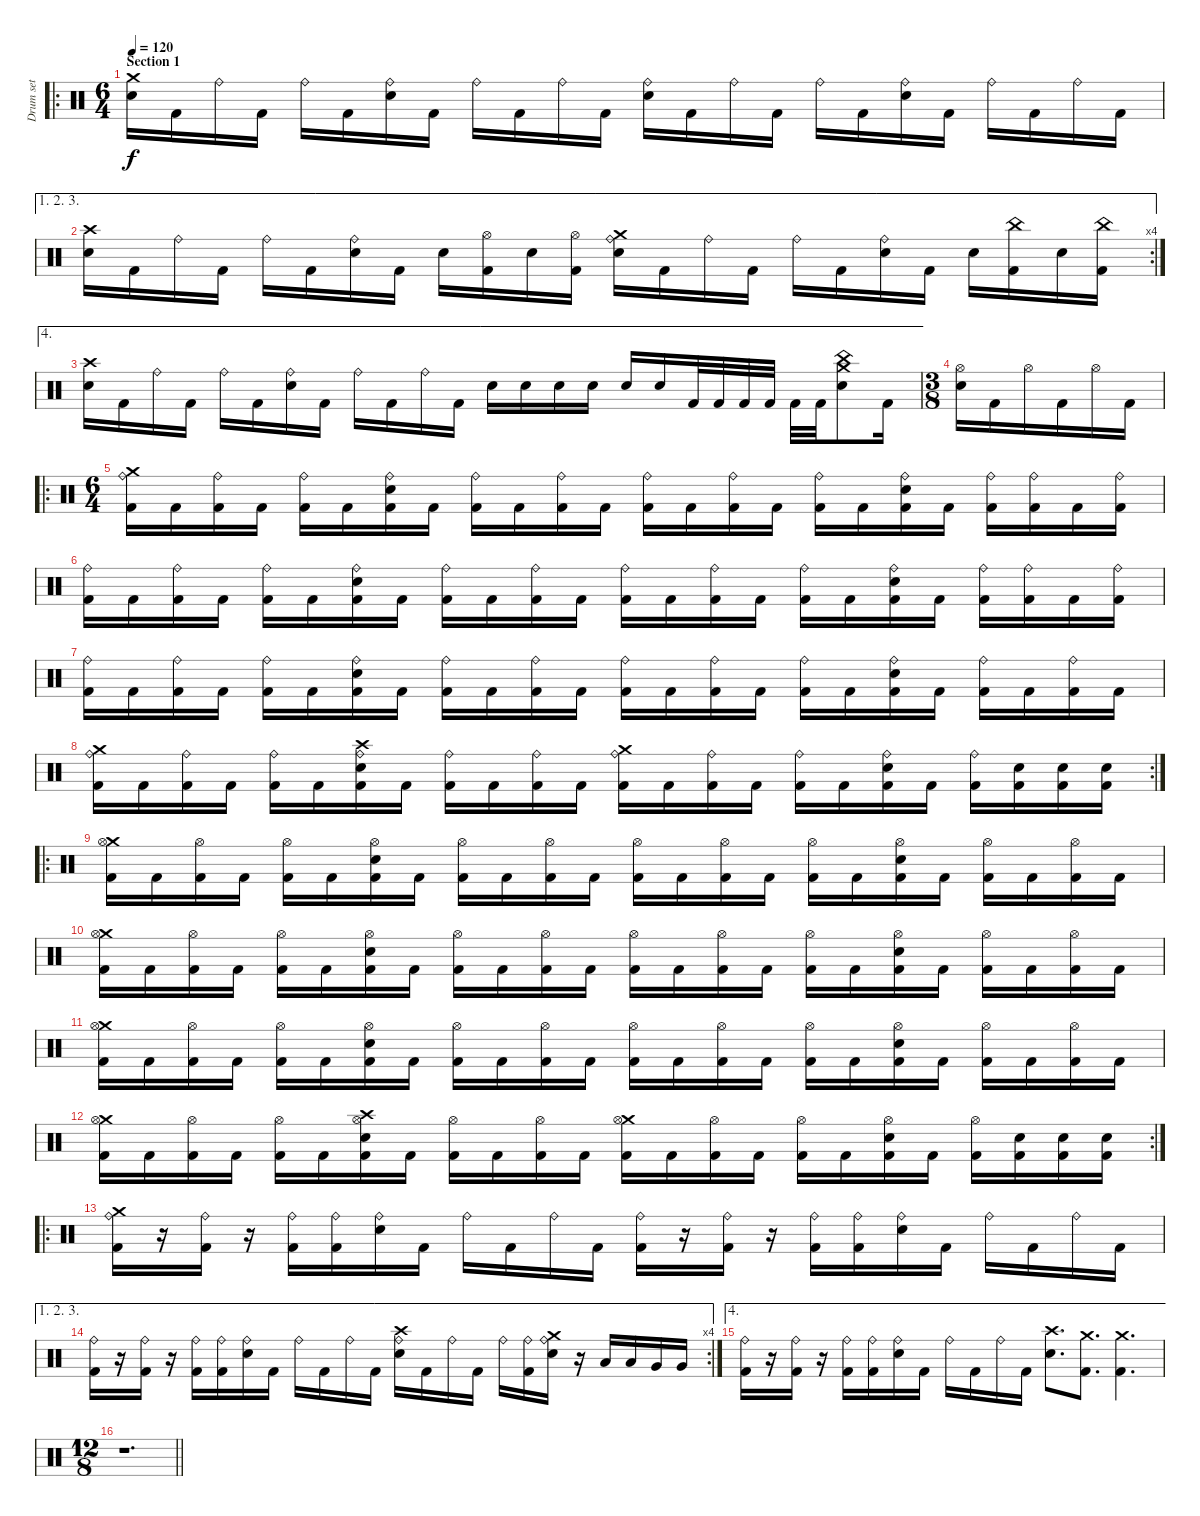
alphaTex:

\track ("Drum set" "Drum set") {instrument percussion}
\staff {score}
\articulation defaults
\ro
\ts (6 4)
\section ("" "Section 1")
\tempo 120
\clef neutral
\ks c
("Crash medium (hit)" "Snare (hit) 2").16{dy f} "Kick (hit) 2".16 "Ride (bell)".16 "Kick (hit) 2".16 "Ride (bell)".16 "Kick (hit) 2".16 ("Ride (bell)" "Snare (hit) 2").16 "Kick (hit) 2".16 "Ride (bell)".16 "Kick (hit) 2".16 "Ride (bell)".16 "Kick (hit) 2".16 ("Ride (bell)" "Snare (hit) 2").16 "Kick (hit) 2".16 "Ride (bell)".16 "Kick (hit) 2".16 "Ride (bell)".16 "Kick (hit) 2".16 ("Ride (bell)" "Snare (hit) 2").16 "Kick (hit) 2".16 "Ride (bell)".16 "Kick (hit) 2".16 "Ride (bell)".16 "Kick (hit) 2".16 |
\ae (1 2 3)
\rc 4
("Crash high (hit)" "Snare (hit) 2").16 "Kick (hit) 2".16 "Ride (bell)".16 "Kick (hit) 2".16 "Ride (bell)".16 "Kick (hit) 2".16 ("Ride (bell)" "Snare (hit) 2").16 "Kick (hit) 2".16 "Snare (hit) 2".16 ("Hi-Hat (open)" "Kick (hit) 2").16 "Snare (hit) 2".16 ("Hi-Hat (open)" "Kick (hit) 2").16 ("Crash medium (hit)" "Ride (bell)" "Snare (hit) 2").16 "Kick (hit) 2".16 "Ride (bell)".16 "Kick (hit) 2".16 "Ride (bell)".16 "Kick (hit) 2".16 ("Ride (bell)" "Snare (hit) 2").16 "Kick (hit) 2".16 "Snare (hit) 2".16 ("China (hit)" "Kick (hit) 2").16 "Snare (hit) 2".16 ("China (hit)" "Kick (hit) 2").16 |
\ae 4
("Crash high (hit)" "Snare (hit) 2").16 "Kick (hit) 2".16 "Ride (bell)".16 "Kick (hit) 2".16 "Ride (bell)".16 "Kick (hit) 2".16 ("Ride (bell)" "Snare (hit) 2").16 "Kick (hit) 2".16 "Ride (bell)".16 "Kick (hit) 2".16 "Ride (bell)".16 "Kick (hit) 2".16 "Snare (hit) 2".16 "Snare (hit) 2".16 "Snare (hit) 2".16 "Snare (hit) 2".16 "Snare (hit) 2".16 "Snare (hit) 2".16 "Kick (hit) 2".32 "Kick (hit) 2".32 "Kick (hit) 2".32 "Kick (hit) 2".32 "Kick (hit) 2".32 "Kick (hit) 2".32 ("China (hit)" "Crash medium (hit)" "Snare (hit) 2").8 "Kick (hit) 2".16 |
\ts (3 8)
("Hi-Hat (open)" "Snare (hit) 2").16 "Kick (hit) 2".16 "Hi-Hat (open)".16 "Kick (hit) 2".16 "Hi-Hat (open)".16 "Kick (hit) 2".16 |
\ro
\ts (6 4)
("Crash medium (hit)" "Ride (bell)" "Kick (hit) 2").16 "Kick (hit) 2".16 ("Ride (bell)" "Kick (hit) 2").16 "Kick (hit) 2".16 ("Ride (bell)" "Kick (hit) 2").16 "Kick (hit) 2".16 ("Ride (bell)" "Snare (hit) 2" "Kick (hit) 2").16 "Kick (hit) 2".16 ("Ride (bell)" "Kick (hit) 2").16 "Kick (hit) 2".16 ("Ride (bell)" "Kick (hit) 2").16 "Kick (hit) 2".16 ("Ride (bell)" "Kick (hit) 2").16 "Kick (hit) 2".16 ("Ride (bell)" "Kick (hit) 2").16 "Kick (hit) 2".16 ("Ride (bell)" "Kick (hit) 2").16 "Kick (hit) 2".16 ("Ride (bell)" "Snare (hit) 2" "Kick (hit) 2").16 "Kick (hit) 2".16 ("Ride (bell)" "Kick (hit) 2").16 ("Ride (bell)" "Kick (hit) 2").16 "Kick (hit) 2".16 ("Ride (bell)" "Kick (hit) 2").16 |
("Ride (bell)" "Kick (hit) 2").16 "Kick (hit) 2".16 ("Ride (bell)" "Kick (hit) 2").16 "Kick (hit) 2".16 ("Ride (bell)" "Kick (hit) 2").16 "Kick (hit) 2".16 ("Ride (bell)" "Snare (hit) 2" "Kick (hit) 2").16 "Kick (hit) 2".16 ("Ride (bell)" "Kick (hit) 2").16 "Kick (hit) 2".16 ("Ride (bell)" "Kick (hit) 2").16 "Kick (hit) 2".16 ("Ride (bell)" "Kick (hit) 2").16 "Kick (hit) 2".16 ("Ride (bell)" "Kick (hit) 2").16 "Kick (hit) 2".16 ("Ride (bell)" "Kick (hit) 2").16 "Kick (hit) 2".16 ("Ride (bell)" "Snare (hit) 2" "Kick (hit) 2").16 "Kick (hit) 2".16 ("Ride (bell)" "Kick (hit) 2").16 ("Ride (bell)" "Kick (hit) 2").16 "Kick (hit) 2".16 ("Ride (bell)" "Kick (hit) 2").16 |
("Ride (bell)" "Kick (hit) 2").16 "Kick (hit) 2".16 ("Ride (bell)" "Kick (hit) 2").16 "Kick (hit) 2".16 ("Ride (bell)" "Kick (hit) 2").16 "Kick (hit) 2".16 ("Ride (bell)" "Snare (hit) 2" "Kick (hit) 2").16 "Kick (hit) 2".16 ("Ride (bell)" "Kick (hit) 2").16 "Kick (hit) 2".16 ("Ride (bell)" "Kick (hit) 2").16 "Kick (hit) 2".16 ("Ride (bell)" "Kick (hit) 2").16 "Kick (hit) 2".16 ("Ride (bell)" "Kick (hit) 2").16 "Kick (hit) 2".16 ("Ride (bell)" "Kick (hit) 2").16 "Kick (hit) 2".16 ("Ride (bell)" "Snare (hit) 2" "Kick (hit) 2").16 "Kick (hit) 2".16 ("Ride (bell)" "Kick (hit) 2").16 "Kick (hit) 2".16 ("Ride (bell)" "Kick (hit) 2").16 "Kick (hit) 2".16 |
\rc 2
("Crash medium (hit)" "Ride (bell)" "Kick (hit) 2").16 "Kick (hit) 2".16 ("Ride (bell)" "Kick (hit) 2").16 "Kick (hit) 2".16 ("Ride (bell)" "Kick (hit) 2").16 "Kick (hit) 2".16 ("Crash high (hit)" "Ride (bell)" "Snare (hit) 2" "Kick (hit) 2").16 "Kick (hit) 2".16 ("Ride (bell)" "Kick (hit) 2").16 "Kick (hit) 2".16 ("Ride (bell)" "Kick (hit) 2").16 "Kick (hit) 2".16 ("Crash medium (hit)" "Ride (bell)" "Kick (hit) 2").16 "Kick (hit) 2".16 ("Ride (bell)" "Kick (hit) 2").16 "Kick (hit) 2".16 ("Ride (bell)" "Kick (hit) 2").16 "Kick (hit) 2".16 ("Ride (bell)" "Snare (hit) 2" "Kick (hit) 2").16 "Kick (hit) 2".16 ("Ride (bell)" "Kick (hit) 2").16 ("Snare (hit) 2" "Kick (hit) 2").16 ("Snare (hit) 2" "Kick (hit) 2").16 ("Snare (hit) 2" "Kick (hit) 2").16 |
\ro
("Crash medium (hit)" "Hi-Hat (open)" "Kick (hit) 2").16 "Kick (hit) 2".16 ("Hi-Hat (open)" "Kick (hit) 2").16 "Kick (hit) 2".16 ("Hi-Hat (open)" "Kick (hit) 2").16 "Kick (hit) 2".16 ("Hi-Hat (open)" "Snare (hit) 2" "Kick (hit) 2").16 "Kick (hit) 2".16 ("Hi-Hat (open)" "Kick (hit) 2").16 "Kick (hit) 2".16 ("Hi-Hat (open)" "Kick (hit) 2").16 "Kick (hit) 2".16 ("Hi-Hat (open)" "Kick (hit) 2").16 "Kick (hit) 2".16 ("Hi-Hat (open)" "Kick (hit) 2").16 "Kick (hit) 2".16 ("Hi-Hat (open)" "Kick (hit) 2").16 "Kick (hit) 2".16 ("Hi-Hat (open)" "Snare (hit) 2" "Kick (hit) 2").16 "Kick (hit) 2".16 ("Hi-Hat (open)" "Kick (hit) 2").16 "Kick (hit) 2".16 ("Hi-Hat (open)" "Kick (hit) 2").16 "Kick (hit) 2".16 |
("Crash medium (hit)" "Hi-Hat (open)" "Kick (hit) 2").16 "Kick (hit) 2".16 ("Hi-Hat (open)" "Kick (hit) 2").16 "Kick (hit) 2".16 ("Hi-Hat (open)" "Kick (hit) 2").16 "Kick (hit) 2".16 ("Hi-Hat (open)" "Snare (hit) 2" "Kick (hit) 2").16 "Kick (hit) 2".16 ("Hi-Hat (open)" "Kick (hit) 2").16 "Kick (hit) 2".16 ("Hi-Hat (open)" "Kick (hit) 2").16 "Kick (hit) 2".16 ("Hi-Hat (open)" "Kick (hit) 2").16 "Kick (hit) 2".16 ("Hi-Hat (open)" "Kick (hit) 2").16 "Kick (hit) 2".16 ("Hi-Hat (open)" "Kick (hit) 2").16 "Kick (hit) 2".16 ("Hi-Hat (open)" "Snare (hit) 2" "Kick (hit) 2").16 "Kick (hit) 2".16 ("Hi-Hat (open)" "Kick (hit) 2").16 "Kick (hit) 2".16 ("Hi-Hat (open)" "Kick (hit) 2").16 "Kick (hit) 2".16 |
("Crash medium (hit)" "Hi-Hat (open)" "Kick (hit) 2").16 "Kick (hit) 2".16 ("Hi-Hat (open)" "Kick (hit) 2").16 "Kick (hit) 2".16 ("Hi-Hat (open)" "Kick (hit) 2").16 "Kick (hit) 2".16 ("Hi-Hat (open)" "Snare (hit) 2" "Kick (hit) 2").16 "Kick (hit) 2".16 ("Hi-Hat (open)" "Kick (hit) 2").16 "Kick (hit) 2".16 ("Hi-Hat (open)" "Kick (hit) 2").16 "Kick (hit) 2".16 ("Hi-Hat (open)" "Kick (hit) 2").16 "Kick (hit) 2".16 ("Hi-Hat (open)" "Kick (hit) 2").16 "Kick (hit) 2".16 ("Hi-Hat (open)" "Kick (hit) 2").16 "Kick (hit) 2".16 ("Hi-Hat (open)" "Snare (hit) 2" "Kick (hit) 2").16 "Kick (hit) 2".16 ("Hi-Hat (open)" "Kick (hit) 2").16 "Kick (hit) 2".16 ("Hi-Hat (open)" "Kick (hit) 2").16 "Kick (hit) 2".16 |
\rc 2
("Crash medium (hit)" "Hi-Hat (open)" "Kick (hit) 2").16 "Kick (hit) 2".16 ("Hi-Hat (open)" "Kick (hit) 2").16 "Kick (hit) 2".16 ("Hi-Hat (open)" "Kick (hit) 2").16 "Kick (hit) 2".16 ("Crash high (hit)" "Hi-Hat (open)" "Snare (hit) 2" "Kick (hit) 2").16 "Kick (hit) 2".16 ("Hi-Hat (open)" "Kick (hit) 2").16 "Kick (hit) 2".16 ("Hi-Hat (open)" "Kick (hit) 2").16 "Kick (hit) 2".16 ("Crash medium (hit)" "Hi-Hat (open)" "Kick (hit) 2").16 "Kick (hit) 2".16 ("Hi-Hat (open)" "Kick (hit) 2").16 "Kick (hit) 2".16 ("Hi-Hat (open)" "Kick (hit) 2").16 "Kick (hit) 2".16 ("Hi-Hat (open)" "Snare (hit) 2" "Kick (hit) 2").16 "Kick (hit) 2".16 ("Hi-Hat (open)" "Kick (hit) 2").16 ("Snare (hit) 2" "Kick (hit) 2").16 ("Snare (hit) 2" "Kick (hit) 2").16 ("Snare (hit) 2" "Kick (hit) 2").16 |
\ro
("Crash medium (hit)" "Ride (bell)" "Kick (hit) 2").16 r.16 ("Ride (bell)" "Kick (hit) 2").16 r.16 ("Ride (bell)" "Kick (hit) 2").16 ("Ride (bell)" "Kick (hit) 2").16 ("Ride (bell)" "Snare (hit) 2").16 "Kick (hit) 2".16 "Ride (bell)".16 "Kick (hit) 2".16 "Ride (bell)".16 "Kick (hit) 2".16 ("Ride (bell)" "Kick (hit) 2").16 r.16 ("Ride (bell)" "Kick (hit) 2").16 r.16 ("Ride (bell)" "Kick (hit) 2").16 ("Ride (bell)" "Kick (hit) 2").16 ("Ride (bell)" "Snare (hit) 2").16 "Kick (hit) 2".16 "Ride (bell)".16 "Kick (hit) 2".16 "Ride (bell)".16 "Kick (hit) 2".16 |
\ae (1 2 3)
\rc 4
("Ride (bell)" "Kick (hit) 2").16 r.16 ("Ride (bell)" "Kick (hit) 2").16 r.16 ("Ride (bell)" "Kick (hit) 2").16 ("Ride (bell)" "Kick (hit) 2").16 ("Ride (bell)" "Snare (hit) 2").16 "Kick (hit) 2".16 "Ride (bell)".16 "Kick (hit) 2".16 "Ride (bell)".16 "Kick (hit) 2".16 ("Crash high (hit)" "Ride (bell)" "Snare (hit) 2").16 "Kick (hit) 2".16 "Ride (bell)".16 "Kick (hit) 2".16 "Ride (bell)".16 ("Ride (bell)" "Kick (hit) 2").16 ("Crash medium (hit)" "Ride (bell)" "Snare (hit) 2").16 r.16 "Low Tom (hit)".16 "Low Tom (hit)".16 "Very Low Tom (hit)".16 "Very Low Tom (hit)".16 |
\ae 4
("Ride (bell)" "Kick (hit) 2").16 r.16 ("Ride (bell)" "Kick (hit) 2").16 r.16 ("Ride (bell)" "Kick (hit) 2").16 ("Ride (bell)" "Kick (hit) 2").16 ("Ride (bell)" "Snare (hit) 2").16 "Kick (hit) 2".16 "Ride (bell)".16 "Kick (hit) 2".16 "Ride (bell)".16 "Kick (hit) 2".16 ("Crash high (hit)" "Snare (hit) 2").8{d} ("Crash medium (hit)" "Kick (hit) 2").8{d} ("Crash medium (hit)" "Kick (hit) 2").4{d} |
\ts (12 8)
\barLineRight lightlight
r.1{d}
